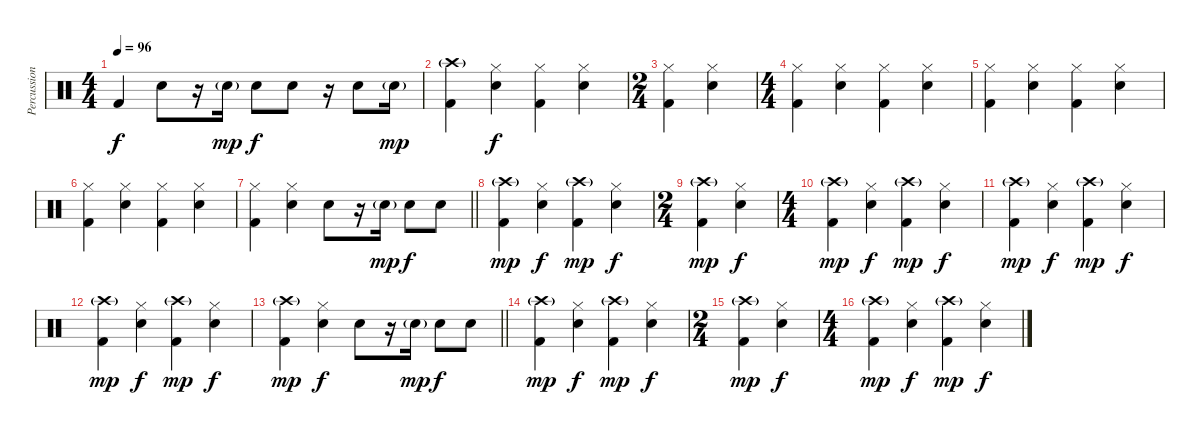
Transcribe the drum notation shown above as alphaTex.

\track ("Percussion" "Percussion") {instrument percussion}
\staff {score}
\articulation defaults
\ts (4 4)
\tempo 96
\clef neutral
\ks c "Kick (hit) 2".4{dy f} "Snare (hit) 2".8
r.16 "Snare (hit) 2"{g}.16{dy mp} "Snare (hit) 2".8{dy f} "Snare (hit) 2".8 r.16 "Snare (hit) 2".8 "Snare (hit) 2"{g}.16{dy mp} |
("Crash high (hit)"{g} "Kick (hit) 2").4 ("Hi-Hat (closed)" "Snare (hit) 2").4{dy f} ("Hi-Hat (closed)" "Kick (hit) 2").4 ("Hi-Hat (closed)" "Snare (hit) 2").4 |
\ts (2 4)
("Hi-Hat (closed)" "Kick (hit) 2").4 ("Hi-Hat (closed)" "Snare (hit) 2").4 |
\ts (4 4)
("Hi-Hat (closed)" "Kick (hit) 2").4 ("Hi-Hat (closed)" "Snare (hit) 2").4 ("Hi-Hat (closed)" "Kick (hit) 2").4 ("Hi-Hat (closed)" "Snare (hit) 2").4 |
("Hi-Hat (closed)" "Kick (hit) 2").4 ("Hi-Hat (closed)" "Snare (hit) 2").4 ("Hi-Hat (closed)" "Kick (hit) 2").4 ("Hi-Hat (closed)" "Snare (hit) 2").4 |
("Hi-Hat (closed)" "Kick (hit) 2").4 ("Hi-Hat (closed)" "Snare (hit) 2").4 ("Hi-Hat (closed)" "Kick (hit) 2").4 ("Hi-Hat (closed)" "Snare (hit) 2").4 |
\barLineRight lightlight
("Hi-Hat (closed)" "Kick (hit) 2").4 ("Hi-Hat (closed)" "Snare (hit) 2").4 "Snare (hit) 2".8 r.16 "Snare (hit) 2"{g}.16{dy mp} "Snare (hit) 2".8{dy f} "Snare (hit) 2".8 |
("Crash high (hit)"{g} "Kick (hit) 2").4{dy mp} ("Hi-Hat (closed)" "Snare (hit) 2").4{dy f} ("Crash high (hit)"{g} "Kick (hit) 2").4{dy mp} ("Hi-Hat (closed)" "Snare (hit) 2").4{dy f} |
\ts (2 4)
("Crash high (hit)"{g} "Kick (hit) 2").4{dy mp} ("Hi-Hat (closed)" "Snare (hit) 2").4{dy f} |
\ts (4 4)
("Crash high (hit)"{g} "Kick (hit) 2").4{dy mp} ("Hi-Hat (closed)" "Snare (hit) 2").4{dy f} ("Crash high (hit)"{g} "Kick (hit) 2").4{dy mp} ("Hi-Hat (closed)" "Snare (hit) 2").4{dy f} |
("Crash high (hit)"{g} "Kick (hit) 2").4{dy mp} ("Hi-Hat (closed)" "Snare (hit) 2").4{dy f} ("Crash high (hit)"{g} "Kick (hit) 2").4{dy mp} ("Hi-Hat (closed)" "Snare (hit) 2").4{dy f} |
("Crash high (hit)"{g} "Kick (hit) 2").4{dy mp} ("Hi-Hat (closed)" "Snare (hit) 2").4{dy f} ("Crash high (hit)"{g} "Kick (hit) 2").4{dy mp} ("Hi-Hat (closed)" "Snare (hit) 2").4{dy f} |
\barLineRight lightlight
("Crash high (hit)"{g} "Kick (hit) 2").4{dy mp} ("Hi-Hat (closed)" "Snare (hit) 2").4{dy f} "Snare (hit) 2".8 r.16 "Snare (hit) 2"{g}.16{dy mp} "Snare (hit) 2".8{dy f} "Snare (hit) 2".8 |
("Crash high (hit)"{g} "Kick (hit) 2").4{dy mp} ("Hi-Hat (closed)" "Snare (hit) 2").4{dy f} ("Crash high (hit)"{g} "Kick (hit) 2").4{dy mp} ("Hi-Hat (closed)" "Snare (hit) 2").4{dy f} |
\ts (2 4)
("Crash high (hit)"{g} "Kick (hit) 2").4{dy mp} ("Hi-Hat (closed)" "Snare (hit) 2").4{dy f} |
\ts (4 4)
("Crash high (hit)"{g} "Kick (hit) 2").4{dy mp} ("Hi-Hat (closed)" "Snare (hit) 2").4{dy f} ("Crash high (hit)"{g} "Kick (hit) 2").4{dy mp} ("Hi-Hat (closed)" "Snare (hit) 2").4{dy f}
